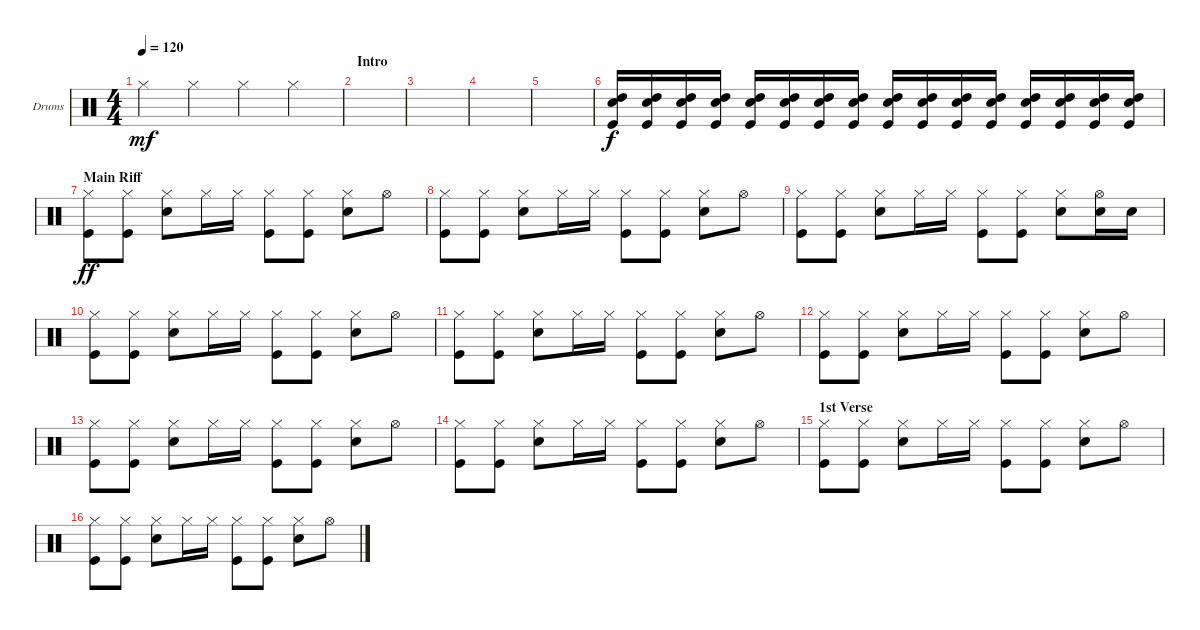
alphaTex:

\defaultSystemsLayout 4
\bracketExtendMode groupsimilarinstruments
\firstSystemTrackNameOrientation horizontal
\otherSystemsTrackNameOrientation horizontal
\track ("Drumkit" "Drums") {instrument percussion}
\staff {score}
\articulation defaults
\ts (4 4)
\tempo 120
\clef neutral
\ks c "Hi-Hat (closed)".4{dy mf} "Hi-Hat (closed)".4 "Hi-Hat (closed)".4 "Hi-Hat (closed)".4
|
\section ("" "Intro")
|
|
|
|
("Snare (hit) 2" "High Tom (hit)" "Kick (hit)").16{dy f} ("Snare (hit) 2" "High Tom (hit)" "Kick (hit)").16 ("Snare (hit) 2" "High Tom (hit)" "Kick (hit)").16 ("Snare (hit) 2" "High Tom (hit)" "Kick (hit)").16 ("Snare (hit) 2" "High Tom (hit)" "Kick (hit)").16 ("Snare (hit) 2" "High Tom (hit)" "Kick (hit)").16 ("Snare (hit) 2" "High Tom (hit)" "Kick (hit)").16 ("Snare (hit) 2" "High Tom (hit)" "Kick (hit)").16 ("Snare (hit) 2" "High Tom (hit)" "Kick (hit)").16 ("Snare (hit) 2" "High Tom (hit)" "Kick (hit)").16 ("Snare (hit) 2" "High Tom (hit)" "Kick (hit)").16 ("Snare (hit) 2" "High Tom (hit)" "Kick (hit)").16 ("Snare (hit) 2" "High Tom (hit)" "Kick (hit)").16 ("Snare (hit) 2" "High Tom (hit)" "Kick (hit)").16 ("Snare (hit) 2" "High Tom (hit)" "Kick (hit)").16 ("Snare (hit) 2" "High Tom (hit)" "Kick (hit)").16 |
\section ("" "Main Riff")
("Kick (hit)" "Hi-Hat (closed)").8{dy ff} ("Hi-Hat (closed)" "Kick (hit)").8 ("Snare (hit) 2" "Hi-Hat (closed)").8 "Hi-Hat (closed)".16 "Hi-Hat (closed)".16 ("Hi-Hat (closed)" "Kick (hit)").8 ("Kick (hit)" "Hi-Hat (closed)").8 ("Hi-Hat (closed)" "Snare (hit) 2").8 "Hi-Hat (open)".8 |
("Hi-Hat (closed)" "Kick (hit)").8 ("Hi-Hat (closed)" "Kick (hit)").8 ("Hi-Hat (closed)" "Snare (hit) 2").8 "Hi-Hat (closed)".16 "Hi-Hat (closed)".16 ("Hi-Hat (closed)" "Kick (hit)").8 ("Hi-Hat (closed)" "Kick (hit)").8 ("Hi-Hat (closed)" "Snare (hit) 2").8 "Hi-Hat (open)".8 |
("Hi-Hat (closed)" "Kick (hit)").8 ("Hi-Hat (closed)" "Kick (hit)").8 ("Hi-Hat (closed)" "Snare (hit) 2").8 "Hi-Hat (closed)".16 "Hi-Hat (closed)".16 ("Hi-Hat (closed)" "Kick (hit)").8 ("Hi-Hat (closed)" "Kick (hit)").8 ("Hi-Hat (closed)" "Snare (hit) 2").8 ("Snare (hit) 2" "Hi-Hat (open)").16 "Snare (hit) 2".16 |
("Hi-Hat (closed)" "Kick (hit)").8 ("Hi-Hat (closed)" "Kick (hit)").8 ("Hi-Hat (closed)" "Snare (hit) 2").8 "Hi-Hat (closed)".16 "Hi-Hat (closed)".16 ("Kick (hit)" "Hi-Hat (closed)").8 ("Hi-Hat (closed)" "Kick (hit)").8 ("Snare (hit) 2" "Hi-Hat (closed)").8 "Hi-Hat (open)".8 |
("Hi-Hat (closed)" "Kick (hit)").8 ("Hi-Hat (closed)" "Kick (hit)").8 ("Hi-Hat (closed)" "Snare (hit) 2").8 "Hi-Hat (closed)".16 "Hi-Hat (closed)".16 ("Kick (hit)" "Hi-Hat (closed)").8 ("Hi-Hat (closed)" "Kick (hit)").8 ("Hi-Hat (closed)" "Snare (hit) 2").8 "Hi-Hat (open)".8 |
("Hi-Hat (closed)" "Kick (hit)").8 ("Kick (hit)" "Hi-Hat (closed)").8 ("Hi-Hat (closed)" "Snare (hit) 2").8 "Hi-Hat (closed)".16 "Hi-Hat (closed)".16 ("Kick (hit)" "Hi-Hat (closed)").8 ("Hi-Hat (closed)" "Kick (hit)").8 ("Snare (hit) 2" "Hi-Hat (closed)").8 "Hi-Hat (open)".8 |
("Hi-Hat (closed)" "Kick (hit)").8 ("Hi-Hat (closed)" "Kick (hit)").8 ("Hi-Hat (closed)" "Snare (hit) 2").8 "Hi-Hat (closed)".16 "Hi-Hat (closed)".16 ("Hi-Hat (closed)" "Kick (hit)").8 ("Hi-Hat (closed)" "Kick (hit)").8 ("Hi-Hat (closed)" "Snare (hit) 2").8 "Hi-Hat (open)".8 |
("Hi-Hat (closed)" "Kick (hit)").8 ("Hi-Hat (closed)" "Kick (hit)").8 ("Snare (hit) 2" "Hi-Hat (closed)").8 "Hi-Hat (closed)".16 "Hi-Hat (closed)".16 ("Kick (hit)" "Hi-Hat (closed)").8 ("Kick (hit)" "Hi-Hat (closed)").8 ("Snare (hit) 2" "Hi-Hat (closed)").8 "Hi-Hat (open)".8 |
\section ("" "1st Verse")
("Hi-Hat (closed)" "Kick (hit)").8 ("Hi-Hat (closed)" "Kick (hit)").8 ("Hi-Hat (closed)" "Snare (hit) 2").8 "Hi-Hat (closed)".16 "Hi-Hat (closed)".16 ("Hi-Hat (closed)" "Kick (hit)").8 ("Kick (hit)" "Hi-Hat (closed)").8 ("Hi-Hat (closed)" "Snare (hit) 2").8 "Hi-Hat (open)".8 |
("Hi-Hat (closed)" "Kick (hit)").8 ("Hi-Hat (closed)" "Kick (hit)").8 ("Snare (hit) 2" "Hi-Hat (closed)").8 "Hi-Hat (closed)".16 "Hi-Hat (closed)".16 ("Hi-Hat (closed)" "Kick (hit)").8 ("Kick (hit)" "Hi-Hat (closed)").8 ("Snare (hit) 2" "Hi-Hat (closed)").8 "Hi-Hat (open)".8
